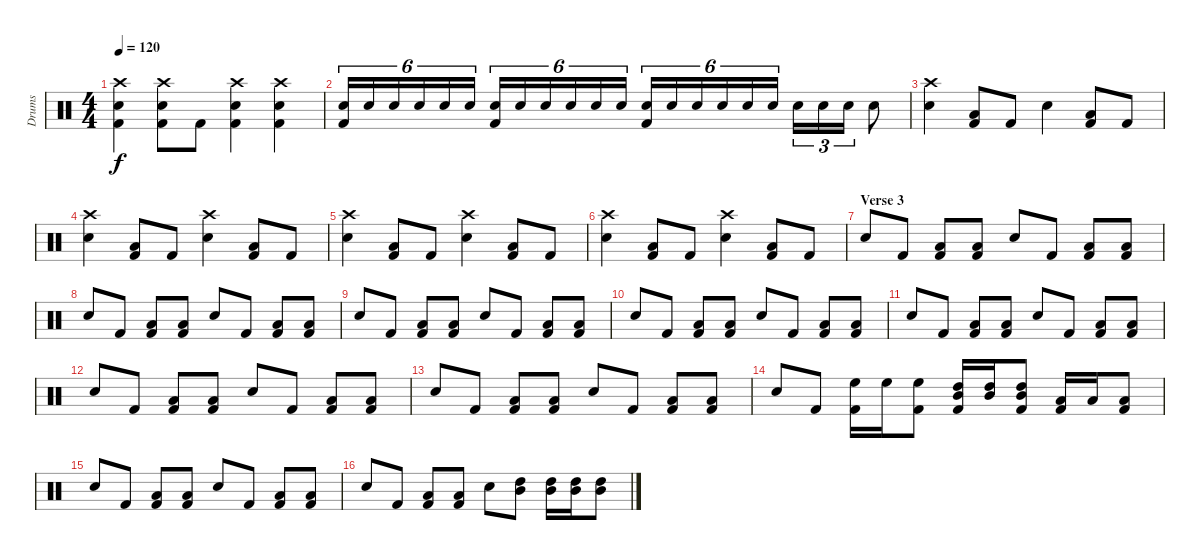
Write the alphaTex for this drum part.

\track ("Drums" "Drums") {instrument percussion}
\staff {score}
\articulation defaults
\ts (4 4)
\tempo 120
\clef neutral
\ks c
("Crash high (hit)" "Snare (hit) 2" "Kick (hit) 2").4{dy f} ("Crash high (hit)" "Snare (hit) 2" "Kick (hit) 2").8 "Kick (hit) 2".8 ("Crash high (hit)" "Snare (hit) 2" "Kick (hit) 2").4 ("Crash high (hit)" "Snare (hit) 2" "Kick (hit) 2").4 |
("Snare (hit) 2" "Kick (hit) 2").16{tu (6 4)} "Snare (hit) 2".16{tu (6 4)} "Snare (hit) 2".16{tu (6 4)} "Snare (hit) 2".16{tu (6 4)} "Snare (hit) 2".16{tu (6 4)} "Snare (hit) 2".16{tu (6 4)} ("Snare (hit) 2" "Kick (hit) 2").16{tu (6 4)} "Snare (hit) 2".16{tu (6 4)} "Snare (hit) 2".16{tu (6 4)} "Snare (hit) 2".16{tu (6 4)} "Snare (hit) 2".16{tu (6 4)} "Snare (hit) 2".16{tu (6 4)} ("Snare (hit) 2" "Kick (hit) 2").16{tu (6 4)} "Snare (hit) 2".16{tu (6 4)} "Snare (hit) 2".16{tu (6 4)} "Snare (hit) 2".16{tu (6 4)} "Snare (hit) 2".16{tu (6 4)} "Snare (hit) 2".16{tu (6 4)} "Snare (hit) 2".16{tu (3 2)} "Snare (hit) 2".16{tu (3 2)} "Snare (hit) 2".16{tu (3 2)} "Snare (hit) 2".8 |
("Crash high (hit)" "Snare (hit) 2").4 ("Low Tom (hit)" "Kick (hit) 2").8 "Kick (hit) 2".8 "Snare (hit) 2".4 ("Low Tom (hit)" "Kick (hit) 2").8 "Kick (hit) 2".8 |
("Crash high (hit)" "Snare (hit) 2").4 ("Low Tom (hit)" "Kick (hit) 2").8 "Kick (hit) 2".8 ("Crash high (hit)" "Snare (hit) 2").4 ("Low Tom (hit)" "Kick (hit) 2").8 "Kick (hit) 2".8 |
("Crash high (hit)" "Snare (hit) 2").4 ("Low Tom (hit)" "Kick (hit) 2").8 "Kick (hit) 2".8 ("Crash high (hit)" "Snare (hit) 2").4 ("Low Tom (hit)" "Kick (hit) 2").8 "Kick (hit) 2".8 |
("Crash high (hit)" "Snare (hit) 2").4 ("Low Tom (hit)" "Kick (hit) 2").8 "Kick (hit) 2".8 ("Crash high (hit)" "Snare (hit) 2").4 ("Low Tom (hit)" "Kick (hit) 2").8 "Kick (hit) 2".8 |
\section ("" "Verse 3")
"Snare (hit) 2".8 "Kick (hit) 2".8 ("Low Tom (hit)" "Kick (hit) 2").8 ("Low Tom (hit)" "Kick (hit) 2").8 "Snare (hit) 2".8 "Kick (hit) 2".8 ("Low Tom (hit)" "Kick (hit) 2").8 ("Low Tom (hit)" "Kick (hit) 2").8 |
"Snare (hit) 2".8 "Kick (hit) 2".8 ("Low Tom (hit)" "Kick (hit) 2").8 ("Low Tom (hit)" "Kick (hit) 2").8 "Snare (hit) 2".8 "Kick (hit) 2".8 ("Low Tom (hit)" "Kick (hit) 2").8 ("Low Tom (hit)" "Kick (hit) 2").8 |
"Snare (hit) 2".8 "Kick (hit) 2".8 ("Low Tom (hit)" "Kick (hit) 2").8 ("Low Tom (hit)" "Kick (hit) 2").8 "Snare (hit) 2".8 "Kick (hit) 2".8 ("Low Tom (hit)" "Kick (hit) 2").8 ("Low Tom (hit)" "Kick (hit) 2").8 |
"Snare (hit) 2".8 "Kick (hit) 2".8 ("Low Tom (hit)" "Kick (hit) 2").8 ("Low Tom (hit)" "Kick (hit) 2").8 "Snare (hit) 2".8 "Kick (hit) 2".8 ("Low Tom (hit)" "Kick (hit) 2").8 ("Low Tom (hit)" "Kick (hit) 2").8 |
"Snare (hit) 2".8 "Kick (hit) 2".8 ("Low Tom (hit)" "Kick (hit) 2").8 ("Low Tom (hit)" "Kick (hit) 2").8 "Snare (hit) 2".8 "Kick (hit) 2".8 ("Low Tom (hit)" "Kick (hit) 2").8 ("Low Tom (hit)" "Kick (hit) 2").8 |
"Snare (hit) 2".8 "Kick (hit) 2".8 ("Low Tom (hit)" "Kick (hit) 2").8 ("Low Tom (hit)" "Kick (hit) 2").8 "Snare (hit) 2".8 "Kick (hit) 2".8 ("Low Tom (hit)" "Kick (hit) 2").8 ("Low Tom (hit)" "Kick (hit) 2").8 |
"Snare (hit) 2".8 "Kick (hit) 2".8 ("Low Tom (hit)" "Kick (hit) 2").8 ("Low Tom (hit)" "Kick (hit) 2").8 "Snare (hit) 2".8 "Kick (hit) 2".8 ("Low Tom (hit)" "Kick (hit) 2").8 ("Low Tom (hit)" "Kick (hit) 2").8 |
"Snare (hit) 2".8 "Kick (hit) 2".8 ("High Floor Tom (hit)" "Kick (hit) 2").16 "High Floor Tom (hit)".16 ("High Floor Tom (hit)" "Kick (hit) 2").8 ("High Tom (hit)" "Mid Tom (hit)" "Kick (hit) 2").16 ("High Tom (hit)" "Mid Tom (hit)").16 ("High Tom (hit)" "Mid Tom (hit)" "Kick (hit) 2").8 ("Low Tom (hit)" "Kick (hit) 2").16 "Low Tom (hit)".16 ("Low Tom (hit)" "Kick (hit) 2").8 |
"Snare (hit) 2".8 "Kick (hit) 2".8 ("Low Tom (hit)" "Kick (hit) 2").8 ("Low Tom (hit)" "Kick (hit) 2").8 "Snare (hit) 2".8 "Kick (hit) 2".8 ("Low Tom (hit)" "Kick (hit) 2").8 ("Low Tom (hit)" "Kick (hit) 2").8 |
"Snare (hit) 2".8 "Kick (hit) 2".8 ("Low Tom (hit)" "Kick (hit) 2").8 ("Low Tom (hit)" "Kick (hit) 2").8 "Snare (hit) 2".8 ("High Tom (hit)" "Mid Tom (hit)").8 ("High Tom (hit)" "Mid Tom (hit)").16 ("High Tom (hit)" "Mid Tom (hit)").16 ("High Tom (hit)" "Mid Tom (hit)").8
